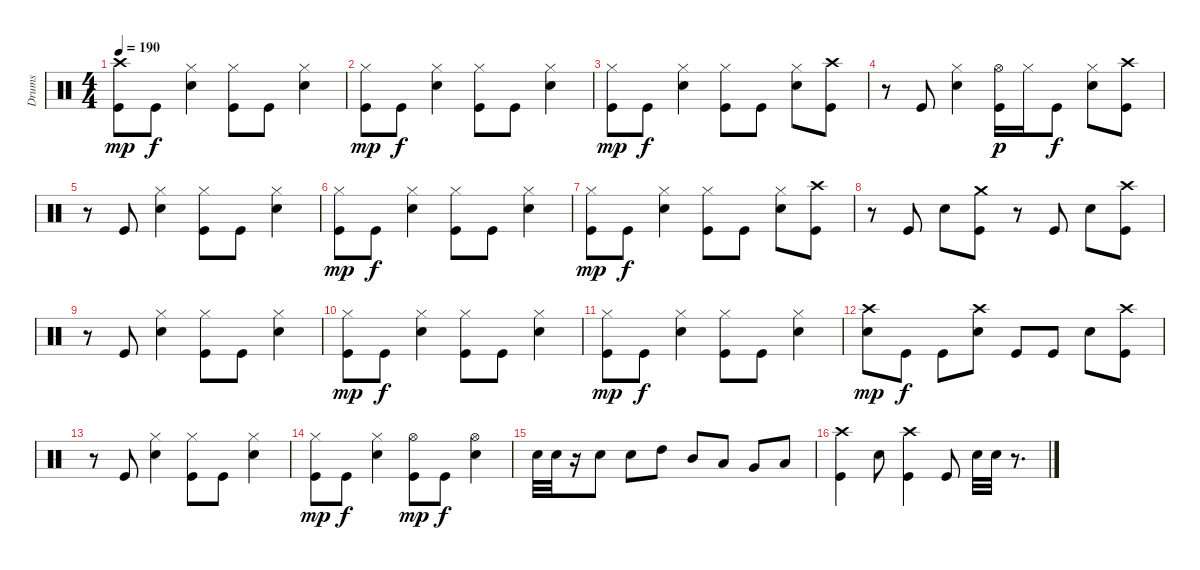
\track ("Drums" "Drums") {instrument percussion}
\staff {score}
\articulation defaults
\ts (4 4)
\tempo 190
\clef neutral
\ks c
("Crash high (hit)" "Kick (hit)").8{dy mp} "Kick (hit)".8{dy f} ("Hi-Hat (closed)" "Snare (hit) 2").4 ("Hi-Hat (closed)" "Kick (hit)").8 "Kick (hit)".8 ("Hi-Hat (closed)" "Snare (hit) 2").4 |
("Hi-Hat (closed)" "Kick (hit)").8{dy mp} "Kick (hit)".8{dy f} ("Hi-Hat (closed)" "Snare (hit) 2").4 ("Hi-Hat (closed)" "Kick (hit)").8 "Kick (hit)".8 ("Hi-Hat (closed)" "Snare (hit) 2").4 |
("Hi-Hat (closed)" "Kick (hit)").8{dy mp} "Kick (hit)".8{dy f} ("Hi-Hat (closed)" "Snare (hit) 2").4 ("Hi-Hat (closed)" "Kick (hit)").8 "Kick (hit)".8 ("Hi-Hat (closed)" "Snare (hit) 2").8 ("Crash high (hit)" "Kick (hit)").8 |
r.8 "Kick (hit)".8 ("Hi-Hat (closed)" "Snare (hit) 2").4 ("Hi-Hat (open)" "Kick (hit)").16{dy p} "Hi-Hat (closed)".16 "Kick (hit)".8{dy f} ("Hi-Hat (closed)" "Snare (hit) 2").8 ("Crash high (hit)" "Kick (hit)").8 |
r.8 "Kick (hit)".8 ("Hi-Hat (closed)" "Snare (hit) 2").4 ("Hi-Hat (closed)" "Kick (hit)").8 "Kick (hit)".8 ("Hi-Hat (closed)" "Snare (hit) 2").4 |
("Hi-Hat (closed)" "Kick (hit)").8{dy mp} "Kick (hit)".8{dy f} ("Hi-Hat (closed)" "Snare (hit) 2").4 ("Hi-Hat (closed)" "Kick (hit)").8 "Kick (hit)".8 ("Hi-Hat (closed)" "Snare (hit) 2").4 |
("Hi-Hat (closed)" "Kick (hit)").8{dy mp} "Kick (hit)".8{dy f} ("Hi-Hat (closed)" "Snare (hit) 2").4 ("Hi-Hat (closed)" "Kick (hit)").8 "Kick (hit)".8 ("Hi-Hat (closed)" "Snare (hit) 2").8 ("Crash high (hit)" "Kick (hit)").8 |
r.8 "Kick (hit)".8 "Snare (hit) 2".8 ("Crash medium (hit)" "Kick (hit)").8 r.8 "Kick (hit)".8 "Snare (hit) 2".8 ("Crash high (hit)" "Kick (hit)").8 |
r.8 "Kick (hit)".8 ("Hi-Hat (closed)" "Snare (hit) 2").4 ("Hi-Hat (closed)" "Kick (hit)").8 "Kick (hit)".8 ("Hi-Hat (closed)" "Snare (hit) 2").4 |
("Hi-Hat (closed)" "Kick (hit)").8{dy mp} "Kick (hit)".8{dy f} ("Hi-Hat (closed)" "Snare (hit) 2").4 ("Hi-Hat (closed)" "Kick (hit)").8 "Kick (hit)".8 ("Hi-Hat (closed)" "Snare (hit) 2").4 |
("Hi-Hat (closed)" "Kick (hit)").8{dy mp} "Kick (hit)".8{dy f} ("Hi-Hat (closed)" "Snare (hit) 2").4 ("Hi-Hat (closed)" "Kick (hit)").8 "Kick (hit)".8 ("Hi-Hat (closed)" "Snare (hit) 2").4 |
("Crash high (hit)" "Snare (hit) 2").8{dy mp} "Kick (hit)".8{dy f} "Kick (hit)".8 ("Crash high (hit)" "Snare (hit) 2").8 "Kick (hit)".8 "Kick (hit)".8 "Snare (hit) 2".8 ("Crash high (hit)" "Kick (hit)").8 |
r.8 "Kick (hit)".8 ("Hi-Hat (closed)" "Snare (hit) 2").4 ("Hi-Hat (closed)" "Kick (hit)").8 "Kick (hit)".8 ("Hi-Hat (closed)" "Snare (hit) 2").4 |
("Hi-Hat (closed)" "Kick (hit)").8{dy mp} "Kick (hit)".8{dy f} ("Hi-Hat (closed)" "Snare (hit) 2").4 ("Hi-Hat (open)" "Kick (hit)").8{dy mp} "Kick (hit)".8{dy f} ("Hi-Hat (open)" "Snare (hit) 2").4 |
"Snare (hit) 2".32 "Snare (hit) 2".32 r.16 "Snare (hit) 2".8 "Snare (hit) 2".8 "High Tom (hit)".8 "Mid Tom (hit)".8 "Low Tom (hit)".8 "Very Low Tom (hit)".8 "Low Floor Tom (hit)".8 |
("Crash high (hit)" "Kick (hit)").4 "Snare (hit) 2".8 ("Crash high (hit)" "Kick (hit)").4 "Kick (hit)".8 "Snare (hit) 2".32 "Snare (hit) 2".32 r.8{d}
